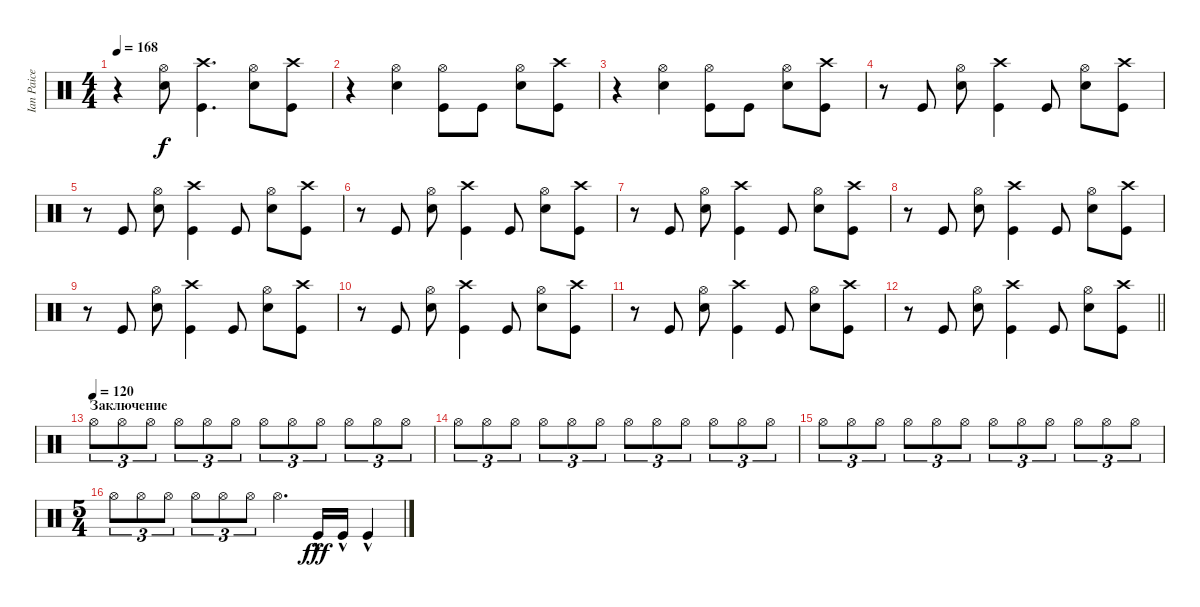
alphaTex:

\track ("Ian Paice" "Ian Paice") {instrument percussion}
\staff {score}
\articulation defaults
\ts (4 4)
\tempo 168
\clef neutral
\ks c
r.4{dy f} ("Hi-Hat (open)" "Snare (hit) 2").8 ("Kick (hit)" "Crash high (hit)").4{d} ("Hi-Hat (open)" "Snare (hit) 2").8 ("Kick (hit)" "Crash high (hit)").8 |
r.4 ("Snare (hit) 2" "Hi-Hat (open)").4 ("Kick (hit)" "Hi-Hat (open)").8 "Kick (hit)".8 ("Hi-Hat (open)" "Snare (hit) 2").8 ("Crash high (hit)" "Kick (hit)").8 |
r.4 ("Snare (hit) 2" "Hi-Hat (open)").4 ("Kick (hit)" "Hi-Hat (open)").8 "Kick (hit)".8 ("Snare (hit) 2" "Hi-Hat (open)").8 ("Crash high (hit)" "Kick (hit)").8 |
r.8 "Kick (hit)".8 ("Hi-Hat (open)" "Snare (hit) 2").8 ("Kick (hit)" "Crash high (hit)").4 "Kick (hit)".8 ("Hi-Hat (open)" "Snare (hit) 2").8 ("Crash high (hit)" "Kick (hit)").8 |
r.8 "Kick (hit)".8 ("Snare (hit) 2" "Hi-Hat (open)").8 ("Kick (hit)" "Crash high (hit)").4 "Kick (hit)".8 ("Hi-Hat (open)" "Snare (hit) 2").8 ("Crash high (hit)" "Kick (hit)").8 |
r.8 "Kick (hit)".8 ("Hi-Hat (open)" "Snare (hit) 2").8 ("Crash high (hit)" "Kick (hit)").4 "Kick (hit)".8 ("Hi-Hat (open)" "Snare (hit) 2").8 ("Crash high (hit)" "Kick (hit)").8 |
r.8 "Kick (hit)".8 ("Snare (hit) 2" "Hi-Hat (open)").8 ("Crash high (hit)" "Kick (hit)").4 "Kick (hit)".8 ("Hi-Hat (open)" "Snare (hit) 2").8 ("Crash high (hit)" "Kick (hit)").8 |
r.8 "Kick (hit)".8 ("Hi-Hat (open)" "Snare (hit) 2").8 ("Crash high (hit)" "Kick (hit)").4 "Kick (hit)".8 ("Hi-Hat (open)" "Snare (hit) 2").8 ("Crash high (hit)" "Kick (hit)").8 |
r.8 "Kick (hit)".8 ("Snare (hit) 2" "Hi-Hat (open)").8 ("Crash high (hit)" "Kick (hit)").4 "Kick (hit)".8 ("Hi-Hat (open)" "Snare (hit) 2").8 ("Crash high (hit)" "Kick (hit)").8 |
r.8 "Kick (hit)".8 ("Hi-Hat (open)" "Snare (hit) 2").8 ("Crash high (hit)" "Kick (hit)").4 "Kick (hit)".8 ("Hi-Hat (open)" "Snare (hit) 2").8 ("Crash high (hit)" "Kick (hit)").8 |
r.8 "Kick (hit)".8 ("Snare (hit) 2" "Hi-Hat (open)").8 ("Crash high (hit)" "Kick (hit)").4 "Kick (hit)".8 ("Hi-Hat (open)" "Snare (hit) 2").8 ("Crash high (hit)" "Kick (hit)").8 |
\barLineRight lightlight
r.8 "Kick (hit)".8 ("Hi-Hat (open)" "Snare (hit) 2").8 ("Crash high (hit)" "Kick (hit)").4 "Kick (hit)".8 ("Hi-Hat (open)" "Snare (hit) 2").8 ("Crash high (hit)" "Kick (hit)").8 |
\section ("" "Заключение")
\tempo (120)
"Hi-Hat (open)".8{tu (3 2)} "Hi-Hat (open)".8{tu (3 2)} "Hi-Hat (open)".8{tu (3 2)} "Hi-Hat (open)".8{tu (3 2)} "Hi-Hat (open)".8{tu (3 2)} "Hi-Hat (open)".8{tu (3 2)} "Hi-Hat (open)".8{tu (3 2)} "Hi-Hat (open)".8{tu (3 2)} "Hi-Hat (open)".8{tu (3 2)} "Hi-Hat (open)".8{tu (3 2)} "Hi-Hat (open)".8{tu (3 2)} "Hi-Hat (open)".8{tu (3 2)} |
"Hi-Hat (open)".8{tu (3 2)} "Hi-Hat (open)".8{tu (3 2)} "Hi-Hat (open)".8{tu (3 2)} "Hi-Hat (open)".8{tu (3 2)} "Hi-Hat (open)".8{tu (3 2)} "Hi-Hat (open)".8{tu (3 2)} "Hi-Hat (open)".8{tu (3 2)} "Hi-Hat (open)".8{tu (3 2)} "Hi-Hat (open)".8{tu (3 2)} "Hi-Hat (open)".8{tu (3 2)} "Hi-Hat (open)".8{tu (3 2)} "Hi-Hat (open)".8{tu (3 2)} |
"Hi-Hat (open)".8{tu (3 2)} "Hi-Hat (open)".8{tu (3 2)} "Hi-Hat (open)".8{tu (3 2)} "Hi-Hat (open)".8{tu (3 2)} "Hi-Hat (open)".8{tu (3 2)} "Hi-Hat (open)".8{tu (3 2)} "Hi-Hat (open)".8{tu (3 2)} "Hi-Hat (open)".8{tu (3 2)} "Hi-Hat (open)".8{tu (3 2)} "Hi-Hat (open)".8{tu (3 2)} "Hi-Hat (open)".8{tu (3 2)} "Hi-Hat (open)".8{tu (3 2)} |
\ts (5 4)
"Hi-Hat (open)".8{tu (3 2)} "Hi-Hat (open)".8{tu (3 2)} "Hi-Hat (open)".8{tu (3 2)} "Hi-Hat (open)".8{tu (3 2)} "Hi-Hat (open)".8{tu (3 2)} "Hi-Hat (open)".8{tu (3 2)} "Hi-Hat (open)".4{d} "Kick (hit)"{hac}.16{dy fff} "Kick (hit)"{hac}.16 "Kick (hit)"{hac}.4
